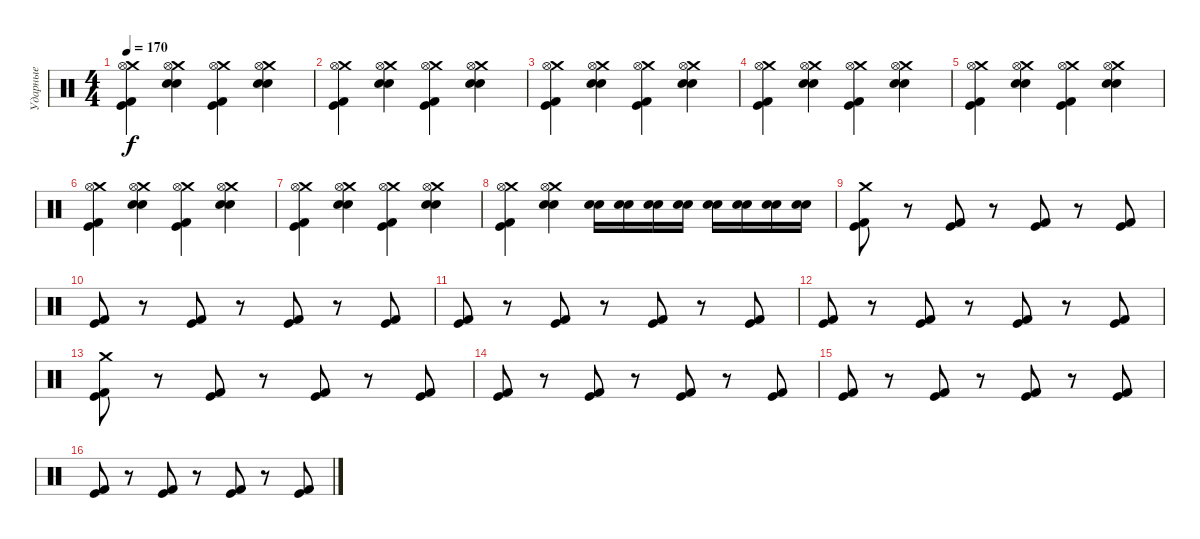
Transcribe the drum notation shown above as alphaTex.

\track ("Ударные" "Ударные") {instrument percussion}
\staff {score}
\articulation defaults
\ts (4 4)
\tempo 170
\clef neutral
\ks c
("Crash medium (hit)" "Hi-Hat (open)" "Kick (hit)" "Kick (hit) 2").4{dy f} ("Crash medium (hit)" "Hi-Hat (open)" "Electric Snare (hit)" "Snare (hit) 2").4 ("Crash medium (hit)" "Hi-Hat (open)" "Kick (hit)" "Kick (hit) 2").4 ("Crash medium (hit)" "Hi-Hat (open)" "Electric Snare (hit)" "Snare (hit) 2").4 |
("Crash medium (hit)" "Hi-Hat (open)" "Kick (hit)" "Kick (hit) 2").4 ("Crash medium (hit)" "Hi-Hat (open)" "Electric Snare (hit)" "Snare (hit) 2").4 ("Crash medium (hit)" "Hi-Hat (open)" "Kick (hit)" "Kick (hit) 2").4 ("Crash medium (hit)" "Hi-Hat (open)" "Electric Snare (hit)" "Snare (hit) 2").4 |
("Crash medium (hit)" "Hi-Hat (open)" "Kick (hit)" "Kick (hit) 2").4 ("Crash medium (hit)" "Hi-Hat (open)" "Electric Snare (hit)" "Snare (hit) 2").4 ("Crash medium (hit)" "Hi-Hat (open)" "Kick (hit)" "Kick (hit) 2").4 ("Crash medium (hit)" "Hi-Hat (open)" "Electric Snare (hit)" "Snare (hit) 2").4 |
("Crash medium (hit)" "Hi-Hat (open)" "Kick (hit)" "Kick (hit) 2").4 ("Crash medium (hit)" "Hi-Hat (open)" "Electric Snare (hit)" "Snare (hit) 2").4 ("Crash medium (hit)" "Hi-Hat (open)" "Kick (hit)" "Kick (hit) 2").4 ("Crash medium (hit)" "Hi-Hat (open)" "Electric Snare (hit)" "Snare (hit) 2").4 |
("Crash medium (hit)" "Hi-Hat (open)" "Kick (hit)" "Kick (hit) 2").4 ("Crash medium (hit)" "Hi-Hat (open)" "Electric Snare (hit)" "Snare (hit) 2").4 ("Crash medium (hit)" "Hi-Hat (open)" "Kick (hit)" "Kick (hit) 2").4 ("Crash medium (hit)" "Hi-Hat (open)" "Electric Snare (hit)" "Snare (hit) 2").4 |
("Crash medium (hit)" "Hi-Hat (open)" "Kick (hit)" "Kick (hit) 2").4 ("Crash medium (hit)" "Hi-Hat (open)" "Electric Snare (hit)" "Snare (hit) 2").4 ("Crash medium (hit)" "Hi-Hat (open)" "Kick (hit)" "Kick (hit) 2").4 ("Crash medium (hit)" "Hi-Hat (open)" "Electric Snare (hit)" "Snare (hit) 2").4 |
("Crash medium (hit)" "Hi-Hat (open)" "Kick (hit)" "Kick (hit) 2").4 ("Crash medium (hit)" "Hi-Hat (open)" "Electric Snare (hit)" "Snare (hit) 2").4 ("Crash medium (hit)" "Hi-Hat (open)" "Kick (hit)" "Kick (hit) 2").4 ("Crash medium (hit)" "Hi-Hat (open)" "Electric Snare (hit)" "Snare (hit) 2").4 |
("Crash medium (hit)" "Hi-Hat (open)" "Kick (hit)" "Kick (hit) 2").4 ("Crash medium (hit)" "Hi-Hat (open)" "Electric Snare (hit)" "Snare (hit) 2").4 ("Snare (hit) 2" "Electric Snare (hit)").16 ("Snare (hit) 2" "Electric Snare (hit)").16 ("Snare (hit) 2" "Electric Snare (hit)").16 ("Snare (hit) 2" "Electric Snare (hit)").16 ("Snare (hit) 2" "Electric Snare (hit)").16 ("Snare (hit) 2" "Electric Snare (hit)").16 ("Snare (hit) 2" "Electric Snare (hit)").16 ("Snare (hit) 2" "Electric Snare (hit)").16 |
("Kick (hit)" "Kick (hit) 2" "Crash medium (hit)").8 r.8 ("Kick (hit)" "Kick (hit) 2").8 r.8 ("Kick (hit)" "Kick (hit) 2").8 r.8 ("Kick (hit)" "Kick (hit) 2").8 |
("Kick (hit)" "Kick (hit) 2").8 r.8 ("Kick (hit)" "Kick (hit) 2").8 r.8 ("Kick (hit)" "Kick (hit) 2").8 r.8 ("Kick (hit)" "Kick (hit) 2").8 |
("Kick (hit)" "Kick (hit) 2").8 r.8 ("Kick (hit)" "Kick (hit) 2").8 r.8 ("Kick (hit)" "Kick (hit) 2").8 r.8 ("Kick (hit)" "Kick (hit) 2").8 |
("Kick (hit)" "Kick (hit) 2").8 r.8 ("Kick (hit)" "Kick (hit) 2").8 r.8 ("Kick (hit)" "Kick (hit) 2").8 r.8 ("Kick (hit)" "Kick (hit) 2").8 |
("Kick (hit)" "Kick (hit) 2" "Crash medium (hit)").8 r.8 ("Kick (hit)" "Kick (hit) 2").8 r.8 ("Kick (hit)" "Kick (hit) 2").8 r.8 ("Kick (hit)" "Kick (hit) 2").8 |
("Kick (hit)" "Kick (hit) 2").8 r.8 ("Kick (hit)" "Kick (hit) 2").8 r.8 ("Kick (hit)" "Kick (hit) 2").8 r.8 ("Kick (hit)" "Kick (hit) 2").8 |
("Kick (hit)" "Kick (hit) 2").8 r.8 ("Kick (hit)" "Kick (hit) 2").8 r.8 ("Kick (hit)" "Kick (hit) 2").8 r.8 ("Kick (hit)" "Kick (hit) 2").8 |
("Kick (hit)" "Kick (hit) 2").8 r.8 ("Kick (hit)" "Kick (hit) 2").8 r.8 ("Kick (hit)" "Kick (hit) 2").8 r.8 ("Kick (hit)" "Kick (hit) 2").8
